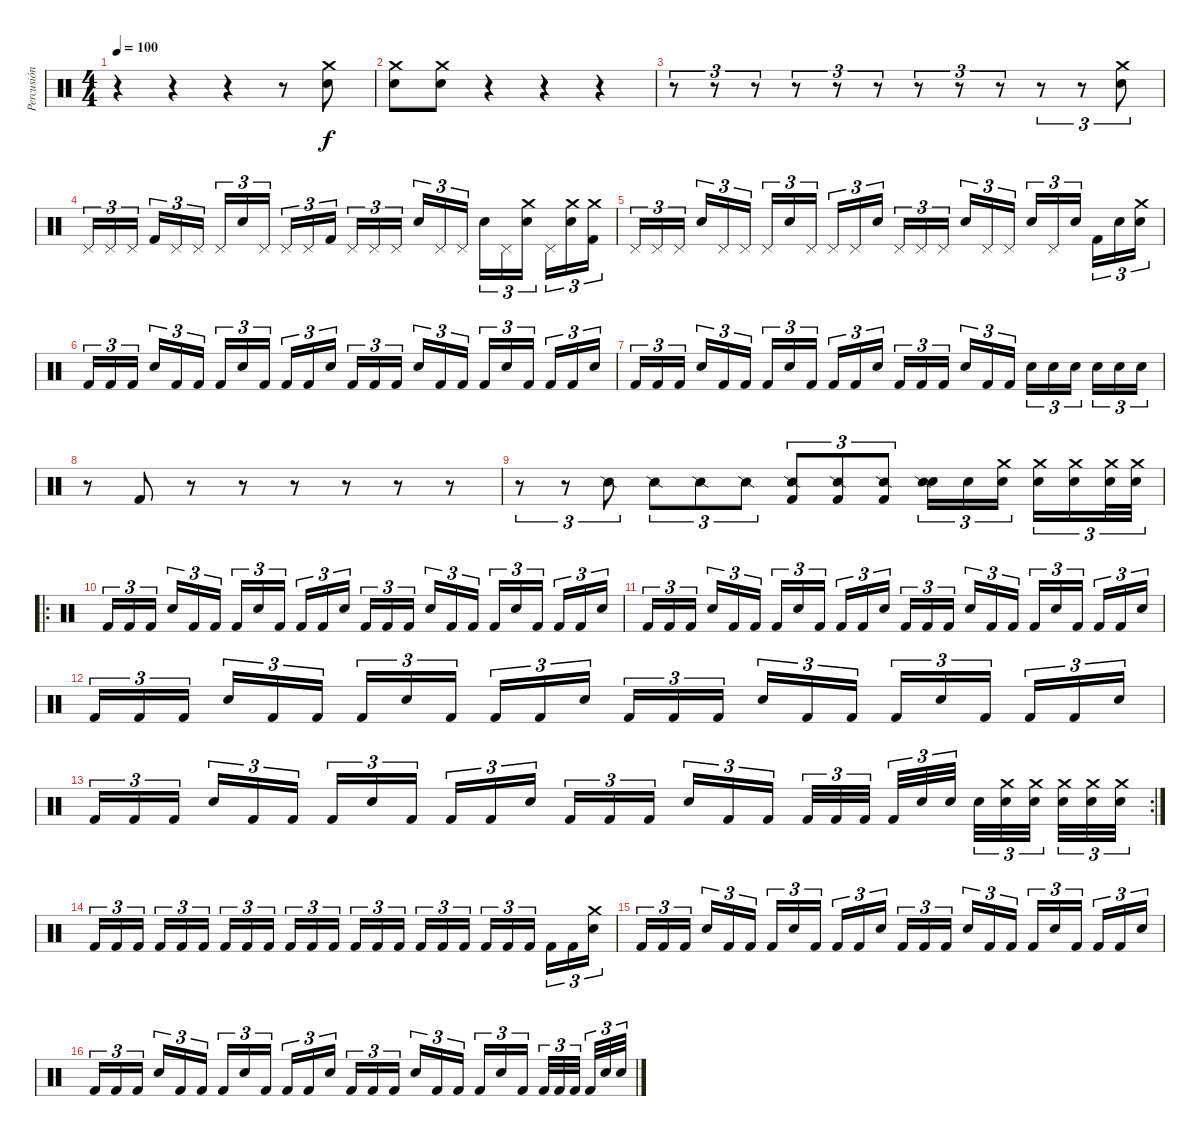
\track ("Percusión" "Percusión") {instrument percussion}
\staff {score}
\articulation defaults
\ts (4 4)
\tempo 100
\clef neutral
\ks c
r.4{dy f} r.4 r.4 r.8 ("Snare (hit) 2" "Crash medium (hit)").8 |
("Snare (hit) 2" "Crash medium (hit)").8 ("Snare (hit) 2" "Crash medium (hit)").8 r.4 r.4 r.4 |
r.8{tu (3 2)} r.8{tu (3 2)} r.8{tu (3 2)} r.8{tu (3 2)} r.8{tu (3 2)} r.8{tu (3 2)} r.8{tu (3 2)} r.8{tu (3 2)} r.8{tu (3 2)} r.8{tu (3 2)} r.8{tu (3 2)} ("Snare (hit) 2" "Crash medium (hit)").8{tu (3 2)} |
"Pedal Hi-Hat (hit)".16{tu (3 2)} "Pedal Hi-Hat (hit)".16{tu (3 2)} "Pedal Hi-Hat (hit)".16{tu (3 2)} "Kick (hit) 2".16{tu (3 2)} "Pedal Hi-Hat (hit)".16{tu (3 2)} "Pedal Hi-Hat (hit)".16{tu (3 2)} "Pedal Hi-Hat (hit)".16{tu (3 2)} "Snare (hit) 2".16{tu (3 2)} "Pedal Hi-Hat (hit)".16{tu (3 2)} "Pedal Hi-Hat (hit)".16{tu (3 2)} "Pedal Hi-Hat (hit)".16{tu (3 2)} "Kick (hit) 2".16{tu (3 2)} "Pedal Hi-Hat (hit)".16{tu (3 2)} "Pedal Hi-Hat (hit)".16{tu (3 2)} "Pedal Hi-Hat (hit)".16{tu (3 2)} "Snare (hit) 2".16{tu (3 2)} "Pedal Hi-Hat (hit)".16{tu (3 2)} "Pedal Hi-Hat (hit)".16{tu (3 2)} "Snare (hit) 2".16{tu (3 2)} "Pedal Hi-Hat (hit)".16{tu (3 2)} ("Snare (hit) 2" "Crash medium (hit)").16{tu (3 2)} "Pedal Hi-Hat (hit)".16{tu (3 2)} ("Snare (hit) 2" "Crash medium (hit)").16{tu (3 2)} ("Kick (hit) 2" "Crash medium (hit)").16{tu (3 2)} |
"Pedal Hi-Hat (hit)".16{tu (3 2)} "Pedal Hi-Hat (hit)".16{tu (3 2)} "Pedal Hi-Hat (hit)".16{tu (3 2)} "Snare (hit) 2".16{tu (3 2)} "Pedal Hi-Hat (hit)".16{tu (3 2)} "Pedal Hi-Hat (hit)".16{tu (3 2)} "Pedal Hi-Hat (hit)".16{tu (3 2)} "Snare (hit) 2".16{tu (3 2)} "Pedal Hi-Hat (hit)".16{tu (3 2)} "Pedal Hi-Hat (hit)".16{tu (3 2)} "Pedal Hi-Hat (hit)".16{tu (3 2)} "Snare (hit) 2".16{tu (3 2)} "Pedal Hi-Hat (hit)".16{tu (3 2)} "Pedal Hi-Hat (hit)".16{tu (3 2)} "Pedal Hi-Hat (hit)".16{tu (3 2)} "Snare (hit) 2".16{tu (3 2)} "Pedal Hi-Hat (hit)".16{tu (3 2)} "Pedal Hi-Hat (hit)".16{tu (3 2)} "Snare (hit) 2".16{tu (3 2)} "Pedal Hi-Hat (hit)".16{tu (3 2)} "Snare (hit) 2".16{tu (3 2)} "Kick (hit) 2".16{tu (3 2)} "Snare (hit) 2".16{tu (3 2)} ("Snare (hit) 2" "Crash medium (hit)").16{tu (3 2)} |
"Kick (hit) 2".16{tu (3 2)} "Kick (hit) 2".16{tu (3 2)} "Kick (hit) 2".16{tu (3 2)} "Snare (hit) 2".16{tu (3 2)} "Kick (hit) 2".16{tu (3 2)} "Kick (hit) 2".16{tu (3 2)} "Kick (hit) 2".16{tu (3 2)} "Snare (hit) 2".16{tu (3 2)} "Kick (hit) 2".16{tu (3 2)} "Kick (hit) 2".16{tu (3 2)} "Kick (hit) 2".16{tu (3 2)} "Snare (hit) 2".16{tu (3 2)} "Kick (hit) 2".16{tu (3 2)} "Kick (hit) 2".16{tu (3 2)} "Kick (hit) 2".16{tu (3 2)} "Snare (hit) 2".16{tu (3 2)} "Kick (hit) 2".16{tu (3 2)} "Kick (hit) 2".16{tu (3 2)} "Kick (hit) 2".16{tu (3 2)} "Snare (hit) 2".16{tu (3 2)} "Kick (hit) 2".16{tu (3 2)} "Kick (hit) 2".16{tu (3 2)} "Kick (hit) 2".16{tu (3 2)} "Snare (hit) 2".16{tu (3 2)} |
"Kick (hit) 2".16{tu (3 2)} "Kick (hit) 2".16{tu (3 2)} "Kick (hit) 2".16{tu (3 2)} "Snare (hit) 2".16{tu (3 2)} "Kick (hit) 2".16{tu (3 2)} "Kick (hit) 2".16{tu (3 2)} "Kick (hit) 2".16{tu (3 2)} "Snare (hit) 2".16{tu (3 2)} "Kick (hit) 2".16{tu (3 2)} "Kick (hit) 2".16{tu (3 2)} "Kick (hit) 2".16{tu (3 2)} "Snare (hit) 2".16{tu (3 2)} "Kick (hit) 2".16{tu (3 2)} "Kick (hit) 2".16{tu (3 2)} "Kick (hit) 2".16{tu (3 2)} "Snare (hit) 2".16{tu (3 2)} "Kick (hit) 2".16{tu (3 2)} "Kick (hit) 2".16{tu (3 2)} "Snare (hit) 2".16{tu (3 2)} "Snare (hit) 2".16{tu (3 2)} "Snare (hit) 2".16{tu (3 2)} "Snare (hit) 2".16{tu (3 2)} "Snare (hit) 2".16{tu (3 2)} "Snare (hit) 2".16{tu (3 2)} |
r.8 "Kick (hit) 2".8 r.8 r.8 r.8 r.8 r.8 r.8 |
r.8{tu (3 2)} r.8{tu (3 2)} "Snare (side stick) 2".8{tu (3 2)} "Snare (side stick) 2".8{tu (3 2)} "Snare (side stick) 2".8{tu (3 2)} "Snare (side stick) 2".8{tu (3 2)} ("Kick (hit) 2" "Snare (side stick) 2").8{tu (3 2)} ("Kick (hit) 2" "Snare (side stick) 2").8{tu (3 2)} ("Kick (hit) 2" "Snare (side stick) 2").8{tu (3 2)} ("Snare (hit) 2" "Snare (side stick) 2").16{tu (3 2)} "Snare (hit) 2".16{tu (3 2)} ("Snare (hit) 2" "Crash medium (hit)").16{tu (3 2)} ("Snare (hit) 2" "Crash medium (hit)").16{tu (3 2)} ("Snare (hit) 2" "Crash medium (hit)").16{tu (3 2)} ("Snare (hit) 2" "Crash medium (hit)").32{tu (3 2)} ("Snare (hit) 2" "Crash medium (hit)").32{tu (3 2)} |
\ro "Kick (hit) 2".16{tu (3 2)} "Kick (hit) 2".16{tu (3 2)} "Kick (hit) 2".16{tu (3 2)} "Snare (hit) 2".16{tu (3 2)} "Kick (hit) 2".16{tu (3 2)} "Kick (hit) 2".16{tu (3 2)} "Kick (hit) 2".16{tu (3 2)} "Snare (hit) 2".16{tu (3 2)} "Kick (hit) 2".16{tu (3 2)} "Kick (hit) 2".16{tu (3 2)} "Kick (hit) 2".16{tu (3 2)} "Snare (hit) 2".16{tu (3 2)} "Kick (hit) 2".16{tu (3 2)} "Kick (hit) 2".16{tu (3 2)} "Kick (hit) 2".16{tu (3 2)} "Snare (hit) 2".16{tu (3 2)} "Kick (hit) 2".16{tu (3 2)} "Kick (hit) 2".16{tu (3 2)} "Kick (hit) 2".16{tu (3 2)} "Snare (hit) 2".16{tu (3 2)} "Kick (hit) 2".16{tu (3 2)} "Kick (hit) 2".16{tu (3 2)} "Kick (hit) 2".16{tu (3 2)} "Snare (hit) 2".16{tu (3 2)}
|
"Kick (hit) 2".16{tu (3 2)} "Kick (hit) 2".16{tu (3 2)} "Kick (hit) 2".16{tu (3 2)} "Snare (hit) 2".16{tu (3 2)} "Kick (hit) 2".16{tu (3 2)} "Kick (hit) 2".16{tu (3 2)} "Kick (hit) 2".16{tu (3 2)} "Snare (hit) 2".16{tu (3 2)} "Kick (hit) 2".16{tu (3 2)} "Kick (hit) 2".16{tu (3 2)} "Kick (hit) 2".16{tu (3 2)} "Snare (hit) 2".16{tu (3 2)} "Kick (hit) 2".16{tu (3 2)} "Kick (hit) 2".16{tu (3 2)} "Kick (hit) 2".16{tu (3 2)} "Snare (hit) 2".16{tu (3 2)} "Kick (hit) 2".16{tu (3 2)} "Kick (hit) 2".16{tu (3 2)} "Kick (hit) 2".16{tu (3 2)} "Snare (hit) 2".16{tu (3 2)} "Kick (hit) 2".16{tu (3 2)} "Kick (hit) 2".16{tu (3 2)} "Kick (hit) 2".16{tu (3 2)} "Snare (hit) 2".16{tu (3 2)} |
"Kick (hit) 2".16{tu (3 2)} "Kick (hit) 2".16{tu (3 2)} "Kick (hit) 2".16{tu (3 2)} "Snare (hit) 2".16{tu (3 2)} "Kick (hit) 2".16{tu (3 2)} "Kick (hit) 2".16{tu (3 2)} "Kick (hit) 2".16{tu (3 2)} "Snare (hit) 2".16{tu (3 2)} "Kick (hit) 2".16{tu (3 2)} "Kick (hit) 2".16{tu (3 2)} "Kick (hit) 2".16{tu (3 2)} "Snare (hit) 2".16{tu (3 2)} "Kick (hit) 2".16{tu (3 2)} "Kick (hit) 2".16{tu (3 2)} "Kick (hit) 2".16{tu (3 2)} "Snare (hit) 2".16{tu (3 2)} "Kick (hit) 2".16{tu (3 2)} "Kick (hit) 2".16{tu (3 2)} "Kick (hit) 2".16{tu (3 2)} "Snare (hit) 2".16{tu (3 2)} "Kick (hit) 2".16{tu (3 2)} "Kick (hit) 2".16{tu (3 2)} "Kick (hit) 2".16{tu (3 2)} "Snare (hit) 2".16{tu (3 2)} |
\rc 2 "Kick (hit) 2".16{tu (3 2)} "Kick (hit) 2".16{tu (3 2)} "Kick (hit) 2".16{tu (3 2)} "Snare (hit) 2".16{tu (3 2)} "Kick (hit) 2".16{tu (3 2)} "Kick (hit) 2".16{tu (3 2)} "Kick (hit) 2".16{tu (3 2)} "Snare (hit) 2".16{tu (3 2)} "Kick (hit) 2".16{tu (3 2)} "Kick (hit) 2".16{tu (3 2)} "Kick (hit) 2".16{tu (3 2)} "Snare (hit) 2".16{tu (3 2)} "Kick (hit) 2".16{tu (3 2)} "Kick (hit) 2".16{tu (3 2)} "Kick (hit) 2".16{tu (3 2)} "Snare (hit) 2".16{tu (3 2)} "Kick (hit) 2".16{tu (3 2)} "Kick (hit) 2".16{tu (3 2)} "Kick (hit) 2".32{tu (3 2)} "Kick (hit) 2".32{tu (3 2)} "Kick (hit) 2".32{tu (3 2)} "Kick (hit) 2".32{tu (3 2)} "Snare (hit) 2".32{tu (3 2)} "Snare (hit) 2".32{tu (3 2)} "Snare (hit) 2".32{tu (3 2)}
("Snare (hit) 2" "Crash medium (hit)").32{tu (3 2)} ("Snare (hit) 2" "Crash medium (hit)").32{tu (3 2)} ("Snare (hit) 2" "Crash medium (hit)").32{tu (3 2)} ("Snare (hit) 2" "Crash medium (hit)").32{tu (3 2)} ("Snare (hit) 2" "Crash medium (hit)").32{tu (3 2)} |
"Kick (hit) 2".16{tu (3 2)} "Kick (hit) 2".16{tu (3 2)} "Kick (hit) 2".16{tu (3 2)} "Kick (hit) 2".16{tu (3 2)} "Kick (hit) 2".16{tu (3 2)} "Kick (hit) 2".16{tu (3 2)} "Kick (hit) 2".16{tu (3 2)} "Kick (hit) 2".16{tu (3 2)} "Kick (hit) 2".16{tu (3 2)} "Kick (hit) 2".16{tu (3 2)} "Kick (hit) 2".16{tu (3 2)} "Kick (hit) 2".16{tu (3 2)} "Kick (hit) 2".16{tu (3 2)} "Kick (hit) 2".16{tu (3 2)} "Kick (hit) 2".16{tu (3 2)} "Kick (hit) 2".16{tu (3 2)} "Kick (hit) 2".16{tu (3 2)} "Kick (hit) 2".16{tu (3 2)} "Kick (hit) 2".16{tu (3 2)} "Kick (hit) 2".16{tu (3 2)} "Kick (hit) 2".16{tu (3 2)} "Kick (hit) 2".16{tu (3 2)} "Kick (hit) 2".16{tu (3 2)} ("Snare (hit) 2" "Crash medium (hit)").16{tu (3 2)} |
"Kick (hit) 2".16{tu (3 2)} "Kick (hit) 2".16{tu (3 2)} "Kick (hit) 2".16{tu (3 2)} "Snare (hit) 2".16{tu (3 2)} "Kick (hit) 2".16{tu (3 2)} "Kick (hit) 2".16{tu (3 2)} "Kick (hit) 2".16{tu (3 2)} "Snare (hit) 2".16{tu (3 2)} "Kick (hit) 2".16{tu (3 2)} "Kick (hit) 2".16{tu (3 2)} "Kick (hit) 2".16{tu (3 2)} "Snare (hit) 2".16{tu (3 2)} "Kick (hit) 2".16{tu (3 2)} "Kick (hit) 2".16{tu (3 2)} "Kick (hit) 2".16{tu (3 2)} "Snare (hit) 2".16{tu (3 2)} "Kick (hit) 2".16{tu (3 2)} "Kick (hit) 2".16{tu (3 2)} "Kick (hit) 2".16{tu (3 2)} "Snare (hit) 2".16{tu (3 2)} "Kick (hit) 2".16{tu (3 2)} "Kick (hit) 2".16{tu (3 2)} "Kick (hit) 2".16{tu (3 2)} "Snare (hit) 2".16{tu (3 2)} |
"Kick (hit) 2".16{tu (3 2)} "Kick (hit) 2".16{tu (3 2)} "Kick (hit) 2".16{tu (3 2)} "Snare (hit) 2".16{tu (3 2)} "Kick (hit) 2".16{tu (3 2)} "Kick (hit) 2".16{tu (3 2)} "Kick (hit) 2".16{tu (3 2)} "Snare (hit) 2".16{tu (3 2)} "Kick (hit) 2".16{tu (3 2)} "Kick (hit) 2".16{tu (3 2)} "Kick (hit) 2".16{tu (3 2)} "Snare (hit) 2".16{tu (3 2)} "Kick (hit) 2".16{tu (3 2)} "Kick (hit) 2".16{tu (3 2)} "Kick (hit) 2".16{tu (3 2)} "Snare (hit) 2".16{tu (3 2)} "Kick (hit) 2".16{tu (3 2)} "Kick (hit) 2".16{tu (3 2)} "Kick (hit) 2".16{tu (3 2)} "Snare (hit) 2".16{tu (3 2)} "Kick (hit) 2".16{tu (3 2)} "Kick (hit) 2".32{tu (3 2)} "Kick (hit) 2".32{tu (3 2)} "Kick (hit) 2".32{tu (3 2)} "Kick (hit) 2".32{tu (3 2)} "Snare (hit) 2".32{tu (3 2)} "Snare (hit) 2".32{tu (3 2)}
